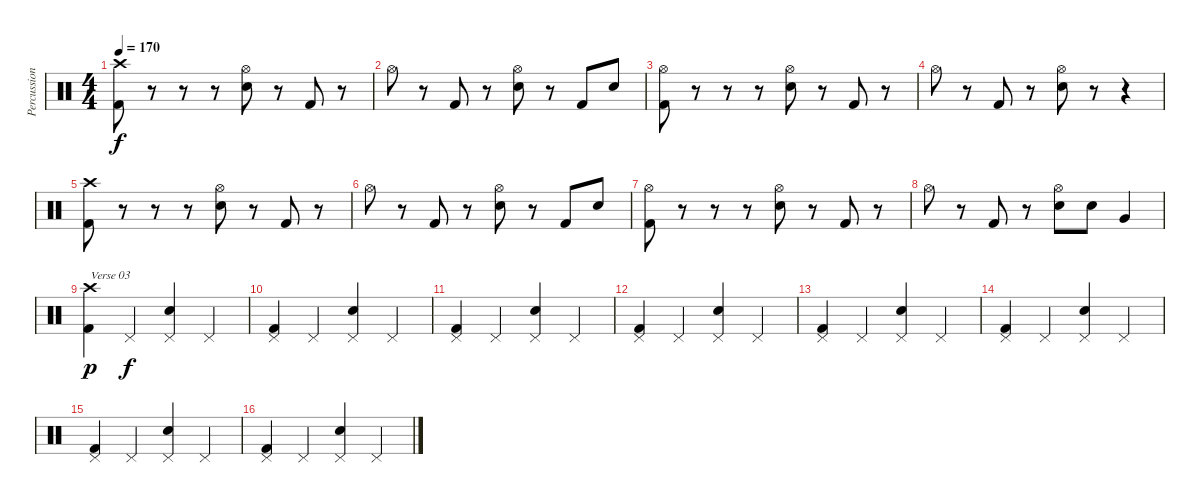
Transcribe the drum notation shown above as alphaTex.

\track ("Percussion" "Percussion") {instrument percussion}
\staff {score}
\articulation defaults
\ts (4 4)
\tempo 170
\clef neutral
\ks c
("Crash high (hit)" "Kick (hit) 2").8{dy f} r.8 r.8 r.8 ("Hi-Hat (open)" "Snare (hit) 2").8 r.8 "Kick (hit) 2".8 r.8 |
"Hi-Hat (open)".8 r.8 "Kick (hit) 2".8 r.8 ("Hi-Hat (open)" "Snare (hit) 2").8 r.8 "Kick (hit) 2".8 "Snare (hit) 2".8 |
("Hi-Hat (open)" "Kick (hit) 2").8 r.8 r.8 r.8 ("Hi-Hat (open)" "Snare (hit) 2").8 r.8 "Kick (hit) 2".8 r.8 |
"Hi-Hat (open)".8 r.8 "Kick (hit) 2".8 r.8 ("Hi-Hat (open)" "Snare (hit) 2").8 r.8 r.4 |
("Crash high (hit)" "Kick (hit) 2").8 r.8 r.8 r.8 ("Hi-Hat (open)" "Snare (hit) 2").8 r.8 "Kick (hit) 2".8 r.8 |
"Hi-Hat (open)".8 r.8 "Kick (hit) 2".8 r.8 ("Hi-Hat (open)" "Snare (hit) 2").8 r.8 "Kick (hit) 2".8 "Snare (hit) 2".8 |
("Hi-Hat (open)" "Kick (hit) 2").8 r.8 r.8 r.8 ("Hi-Hat (open)" "Snare (hit) 2").8 r.8 "Kick (hit) 2".8 r.8 |
"Hi-Hat (open)".8 r.8 "Kick (hit) 2".8 r.8 ("Hi-Hat (open)" "Snare (hit) 2").8 "Snare (hit) 2".8 "Very Low Tom (hit)".4 |
("Crash high (hit)" "Kick (hit) 2").4{txt "Verse 03" dy p} "Pedal Hi-Hat (hit)".4{dy f} ("Pedal Hi-Hat (hit)" "Snare (hit) 2").4 "Pedal Hi-Hat (hit)".4 |
("Pedal Hi-Hat (hit)" "Kick (hit) 2").4 "Pedal Hi-Hat (hit)".4 ("Pedal Hi-Hat (hit)" "Snare (hit) 2").4 "Pedal Hi-Hat (hit)".4 |
("Pedal Hi-Hat (hit)" "Kick (hit) 2").4 "Pedal Hi-Hat (hit)".4 ("Pedal Hi-Hat (hit)" "Snare (hit) 2").4 "Pedal Hi-Hat (hit)".4 |
("Pedal Hi-Hat (hit)" "Kick (hit) 2").4 "Pedal Hi-Hat (hit)".4 ("Pedal Hi-Hat (hit)" "Snare (hit) 2").4 "Pedal Hi-Hat (hit)".4 |
("Pedal Hi-Hat (hit)" "Kick (hit) 2").4 "Pedal Hi-Hat (hit)".4 ("Pedal Hi-Hat (hit)" "Snare (hit) 2").4 "Pedal Hi-Hat (hit)".4 |
("Pedal Hi-Hat (hit)" "Kick (hit) 2").4 "Pedal Hi-Hat (hit)".4 ("Pedal Hi-Hat (hit)" "Snare (hit) 2").4 "Pedal Hi-Hat (hit)".4 |
("Pedal Hi-Hat (hit)" "Kick (hit) 2").4 "Pedal Hi-Hat (hit)".4 ("Pedal Hi-Hat (hit)" "Snare (hit) 2").4 "Pedal Hi-Hat (hit)".4 |
("Pedal Hi-Hat (hit)" "Kick (hit) 2").4 "Pedal Hi-Hat (hit)".4 ("Pedal Hi-Hat (hit)" "Snare (hit) 2").4 "Pedal Hi-Hat (hit)".4
